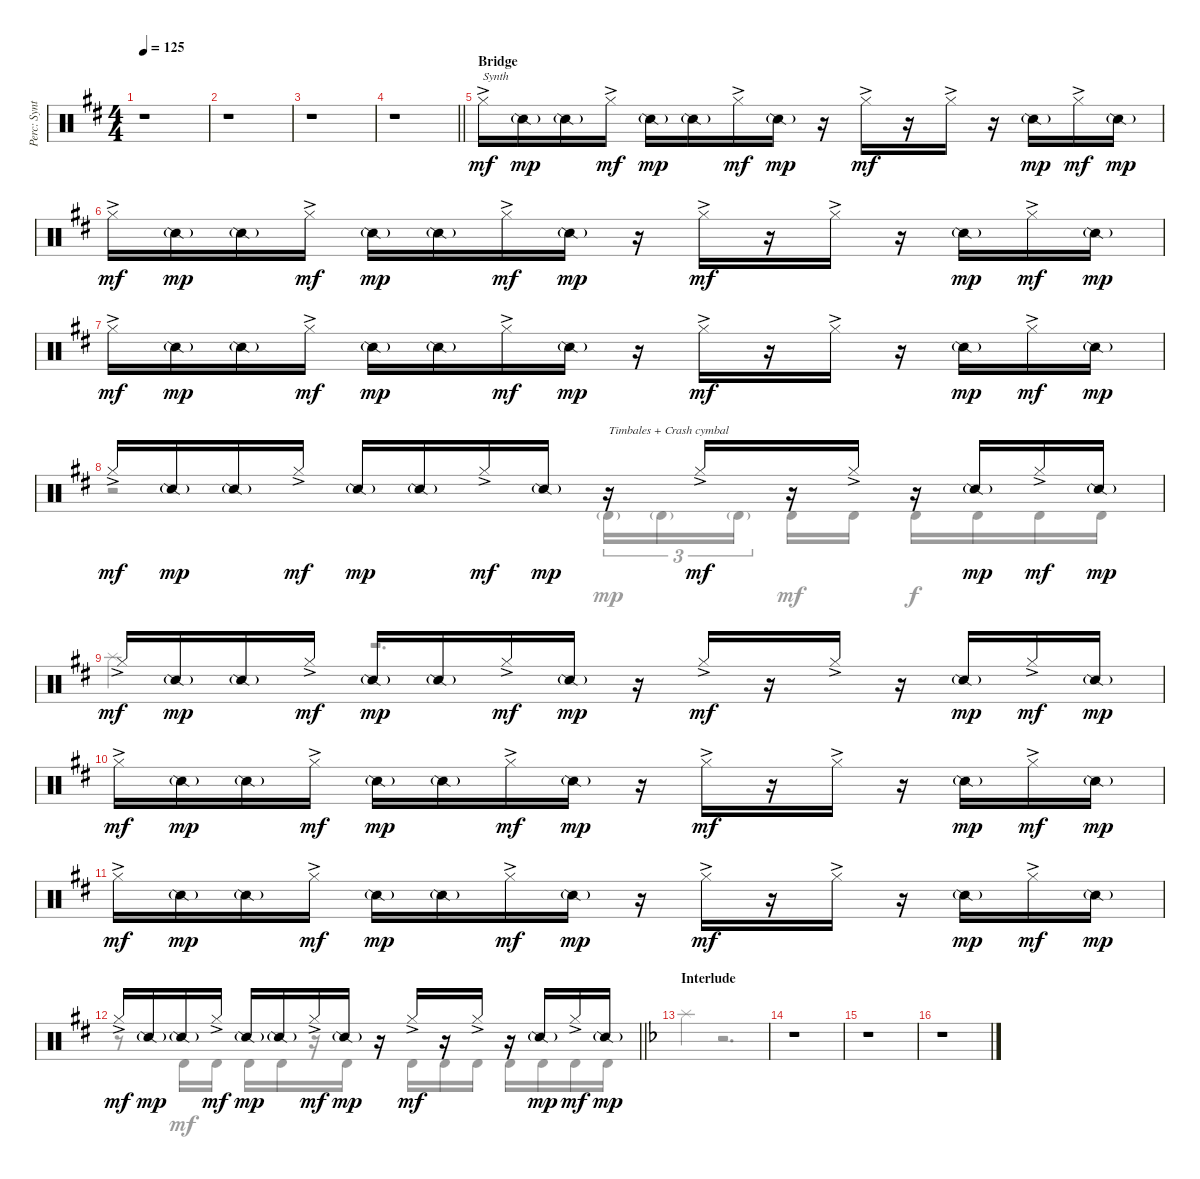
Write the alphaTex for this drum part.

\track ("Perc: Synth + Shaker + Timbales" "Perc: Synt") {instrument percussion}
\staff {score}
\articulation defaults
\voice
\ts (4 4)
\tempo 125
\clef neutral
\ks bminor
r.1{dy mp} |
r.1 |
r.1 |
\barLineRight lightlight
r.1 |
\section ("" "Bridge")
"Hi-Hat (closed)"{ac}.16{txt "Synth" dy mf} "Snare (side stick) 2"{g}.16{dy mp} "Snare (side stick) 2"{g}.16 "Hi-Hat (closed)"{ac}.16{dy mf} "Snare (side stick) 2"{g}.16{dy mp} "Snare (side stick) 2"{g}.16 "Hi-Hat (closed)"{ac}.16{dy mf} "Snare (side stick) 2"{g}.16{dy mp} r.16 "Hi-Hat (closed)"{ac}.16{dy mf} r.16 "Hi-Hat (closed)"{ac}.16 r.16 "Snare (side stick) 2"{g}.16{dy mp} "Hi-Hat (closed)"{ac}.16{dy mf} "Snare (side stick) 2"{g}.16{dy mp} |
"Hi-Hat (closed)"{ac}.16{dy mf} "Snare (side stick) 2"{g}.16{dy mp} "Snare (side stick) 2"{g}.16 "Hi-Hat (closed)"{ac}.16{dy mf} "Snare (side stick) 2"{g}.16{dy mp} "Snare (side stick) 2"{g}.16 "Hi-Hat (closed)"{ac}.16{dy mf} "Snare (side stick) 2"{g}.16{dy mp} r.16 "Hi-Hat (closed)"{ac}.16{dy mf} r.16 "Hi-Hat (closed)"{ac}.16 r.16 "Snare (side stick) 2"{g}.16{dy mp} "Hi-Hat (closed)"{ac}.16{dy mf} "Snare (side stick) 2"{g}.16{dy mp} |
"Hi-Hat (closed)"{ac}.16{dy mf} "Snare (side stick) 2"{g}.16{dy mp} "Snare (side stick) 2"{g}.16 "Hi-Hat (closed)"{ac}.16{dy mf} "Snare (side stick) 2"{g}.16{dy mp} "Snare (side stick) 2"{g}.16 "Hi-Hat (closed)"{ac}.16{dy mf} "Snare (side stick) 2"{g}.16{dy mp} r.16 "Hi-Hat (closed)"{ac}.16{dy mf} r.16 "Hi-Hat (closed)"{ac}.16 r.16 "Snare (side stick) 2"{g}.16{dy mp} "Hi-Hat (closed)"{ac}.16{dy mf} "Snare (side stick) 2"{g}.16{dy mp} |
"Hi-Hat (closed)"{ac}.16{dy mf} "Snare (side stick) 2"{g}.16{dy mp} "Snare (side stick) 2"{g}.16 "Hi-Hat (closed)"{ac}.16{dy mf} "Snare (side stick) 2"{g}.16{dy mp} "Snare (side stick) 2"{g}.16 "Hi-Hat (closed)"{ac}.16{dy mf} "Snare (side stick) 2"{g}.16{dy mp} r.16{txt "Timbales + Crash cymbal"} "Hi-Hat (closed)"{ac}.16{dy mf} r.16 "Hi-Hat (closed)"{ac}.16 r.16 "Snare (side stick) 2"{g}.16{dy mp} "Hi-Hat (closed)"{ac}.16{dy mf} "Snare (side stick) 2"{g}.16{dy mp} |
"Hi-Hat (closed)"{ac}.16{dy mf} "Snare (side stick) 2"{g}.16{dy mp} "Snare (side stick) 2"{g}.16 "Hi-Hat (closed)"{ac}.16{dy mf} "Snare (side stick) 2"{g}.16{dy mp} "Snare (side stick) 2"{g}.16 "Hi-Hat (closed)"{ac}.16{dy mf} "Snare (side stick) 2"{g}.16{dy mp} r.16 "Hi-Hat (closed)"{ac}.16{dy mf} r.16 "Hi-Hat (closed)"{ac}.16 r.16 "Snare (side stick) 2"{g}.16{dy mp} "Hi-Hat (closed)"{ac}.16{dy mf} "Snare (side stick) 2"{g}.16{dy mp} |
"Hi-Hat (closed)"{ac}.16{dy mf} "Snare (side stick) 2"{g}.16{dy mp} "Snare (side stick) 2"{g}.16 "Hi-Hat (closed)"{ac}.16{dy mf} "Snare (side stick) 2"{g}.16{dy mp} "Snare (side stick) 2"{g}.16 "Hi-Hat (closed)"{ac}.16{dy mf} "Snare (side stick) 2"{g}.16{dy mp} r.16 "Hi-Hat (closed)"{ac}.16{dy mf} r.16 "Hi-Hat (closed)"{ac}.16 r.16 "Snare (side stick) 2"{g}.16{dy mp} "Hi-Hat (closed)"{ac}.16{dy mf} "Snare (side stick) 2"{g}.16{dy mp} |
"Hi-Hat (closed)"{ac}.16{dy mf} "Snare (side stick) 2"{g}.16{dy mp} "Snare (side stick) 2"{g}.16 "Hi-Hat (closed)"{ac}.16{dy mf} "Snare (side stick) 2"{g}.16{dy mp} "Snare (side stick) 2"{g}.16 "Hi-Hat (closed)"{ac}.16{dy mf} "Snare (side stick) 2"{g}.16{dy mp} r.16 "Hi-Hat (closed)"{ac}.16{dy mf} r.16 "Hi-Hat (closed)"{ac}.16 r.16 "Snare (side stick) 2"{g}.16{dy mp} "Hi-Hat (closed)"{ac}.16{dy mf} "Snare (side stick) 2"{g}.16{dy mp} |
\barLineRight lightlight "Hi-Hat (closed)"{ac}.16{dy mf} "Snare (side stick) 2"{g}.16{dy mp} "Snare (side stick) 2"{g}.16 "Hi-Hat (closed)"{ac}.16{dy mf} "Snare (side stick) 2"{g}.16{dy mp} "Snare (side stick) 2"{g}.16 "Hi-Hat (closed)"{ac}.16{dy mf} "Snare (side stick) 2"{g}.16{dy mp}
r.16 "Hi-Hat (closed)"{ac}.16{dy mf} r.16 "Hi-Hat (closed)"{ac}.16 r.16 "Snare (side stick) 2"{g}.16{dy mp} "Hi-Hat (closed)"{ac}.16{dy mf} "Snare (side stick) 2"{g}.16{dy mp} |
\section ("" "Interlude")
\ks dminor
|
r.1 |
r.1 |
r.1
\voice
\clef neutral
\ottava regular
\simile none
\ks bminor
|
|
|
\barLineRight lightlight
|
|
|
|
r.2 "Timbale high (hit)"{g}.16{tu (3 2) dy mp} "Timbale high (hit)"{g}.16{tu (3 2)} "Timbale high (hit)"{g}.16{tu (3 2) beam splitsecondary} "Timbale high (hit)".16{dy mf} "Timbale high (hit)".16 "Timbale high (hit)".16{dy f} "Timbale high (hit)".16 "Timbale high (hit)".16 "Timbale high (hit)".16 |
"Splash (hit)".4 r.2{d} |
|
|
\barLineRight lightlight
r.8 "Timbale high (hit)".16{dy mf} "Timbale high (hit)".16 "Timbale high (hit)".16 "Timbale high (hit)".16 r.16 "Timbale high (hit)".16 r.16 "Timbale high (hit)".16 "Timbale high (hit)".16 "Timbale high (hit)".16 "Timbale high (hit)".16 "Timbale high (hit)".16 "Timbale high (hit)".16 "Timbale high (hit)".16 |
\ks dminor "Splash (hit)".4
r.2{d} |
|
|
